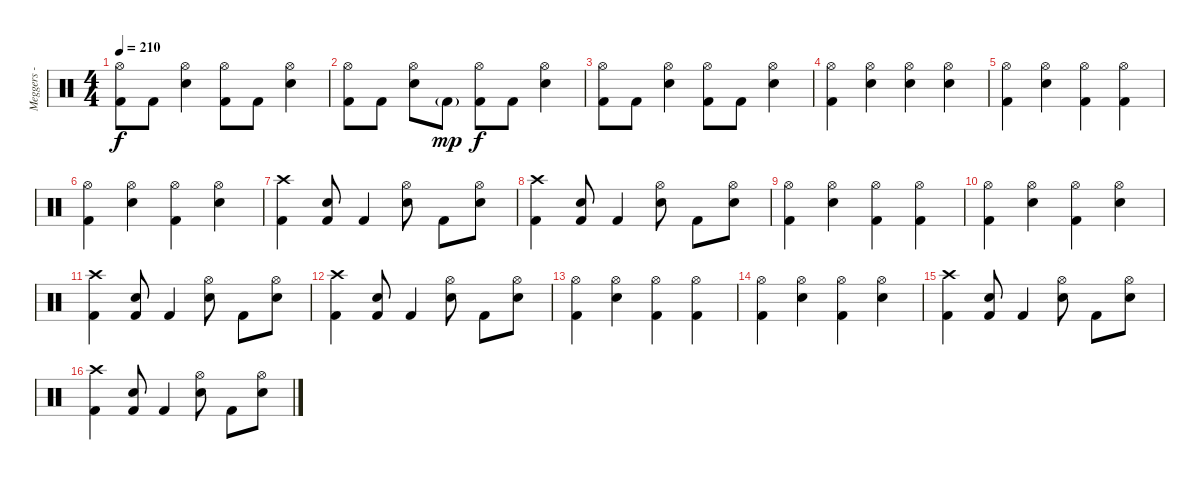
\track ("Meggers - Drums" "Meggers - ") {instrument percussion}
\staff {score}
\articulation defaults
\ts (4 4)
\tempo 210
\clef neutral
\ks c
("Hi-Hat (open)" "Kick (hit) 2").8{dy f} "Kick (hit) 2".8 ("Hi-Hat (open)" "Electric Snare (hit)").4 ("Hi-Hat (open)" "Kick (hit) 2").8 "Kick (hit) 2".8 ("Hi-Hat (open)" "Electric Snare (hit)").4 |
("Hi-Hat (open)" "Kick (hit) 2").8 "Kick (hit) 2".8 ("Hi-Hat (open)" "Electric Snare (hit)").8 "Kick (hit) 2"{g}.8{dy mp} ("Hi-Hat (open)" "Kick (hit) 2").8{dy f} "Kick (hit) 2".8 ("Hi-Hat (open)" "Electric Snare (hit)").4 |
("Hi-Hat (open)" "Kick (hit) 2").8 "Kick (hit) 2".8 ("Hi-Hat (open)" "Electric Snare (hit)").4 ("Hi-Hat (open)" "Kick (hit) 2").8 "Kick (hit) 2".8 ("Hi-Hat (open)" "Electric Snare (hit)").4 |
("Hi-Hat (open)" "Kick (hit) 2").4 ("Hi-Hat (open)" "Electric Snare (hit)").4 ("Hi-Hat (open)" "Electric Snare (hit)").4 ("Hi-Hat (open)" "Electric Snare (hit)").4 |
("Hi-Hat (open)" "Kick (hit) 2").4 ("Hi-Hat (open)" "Electric Snare (hit)").4 ("Hi-Hat (open)" "Kick (hit) 2").4 ("Hi-Hat (open)" "Kick (hit) 2").4 |
("Hi-Hat (open)" "Kick (hit) 2").4 ("Hi-Hat (open)" "Electric Snare (hit)").4 ("Hi-Hat (open)" "Kick (hit) 2").4 ("Hi-Hat (open)" "Electric Snare (hit)").4 |
("Crash high (hit)" "Kick (hit) 2").4 ("Electric Snare (hit)" "Kick (hit) 2").8 "Kick (hit) 2".4 ("Hi-Hat (open)" "Electric Snare (hit)").8 "Kick (hit) 2".8 ("Hi-Hat (open)" "Electric Snare (hit)").8 |
("Crash high (hit)" "Kick (hit) 2").4 ("Electric Snare (hit)" "Kick (hit) 2").8 "Kick (hit) 2".4 ("Hi-Hat (open)" "Electric Snare (hit)").8 "Kick (hit) 2".8 ("Hi-Hat (open)" "Electric Snare (hit)").8 |
("Hi-Hat (open)" "Kick (hit) 2").4 ("Hi-Hat (open)" "Electric Snare (hit)").4 ("Hi-Hat (open)" "Kick (hit) 2").4 ("Hi-Hat (open)" "Kick (hit) 2").4 |
("Hi-Hat (open)" "Kick (hit) 2").4 ("Hi-Hat (open)" "Electric Snare (hit)").4 ("Hi-Hat (open)" "Kick (hit) 2").4 ("Hi-Hat (open)" "Electric Snare (hit)").4 |
("Crash high (hit)" "Kick (hit) 2").4 ("Electric Snare (hit)" "Kick (hit) 2").8 "Kick (hit) 2".4 ("Hi-Hat (open)" "Electric Snare (hit)").8 "Kick (hit) 2".8 ("Hi-Hat (open)" "Electric Snare (hit)").8 |
("Crash high (hit)" "Kick (hit) 2").4 ("Electric Snare (hit)" "Kick (hit) 2").8 "Kick (hit) 2".4 ("Hi-Hat (open)" "Electric Snare (hit)").8 "Kick (hit) 2".8 ("Hi-Hat (open)" "Electric Snare (hit)").8 |
("Hi-Hat (open)" "Kick (hit) 2").4 ("Hi-Hat (open)" "Electric Snare (hit)").4 ("Hi-Hat (open)" "Kick (hit) 2").4 ("Hi-Hat (open)" "Kick (hit) 2").4 |
("Hi-Hat (open)" "Kick (hit) 2").4 ("Hi-Hat (open)" "Electric Snare (hit)").4 ("Hi-Hat (open)" "Kick (hit) 2").4 ("Hi-Hat (open)" "Electric Snare (hit)").4 |
("Crash high (hit)" "Kick (hit) 2").4 ("Electric Snare (hit)" "Kick (hit) 2").8 "Kick (hit) 2".4 ("Hi-Hat (open)" "Electric Snare (hit)").8 "Kick (hit) 2".8 ("Hi-Hat (open)" "Electric Snare (hit)").8 |
("Crash high (hit)" "Kick (hit) 2").4 ("Electric Snare (hit)" "Kick (hit) 2").8 "Kick (hit) 2".4 ("Hi-Hat (open)" "Electric Snare (hit)").8 "Kick (hit) 2".8 ("Hi-Hat (open)" "Electric Snare (hit)").8
